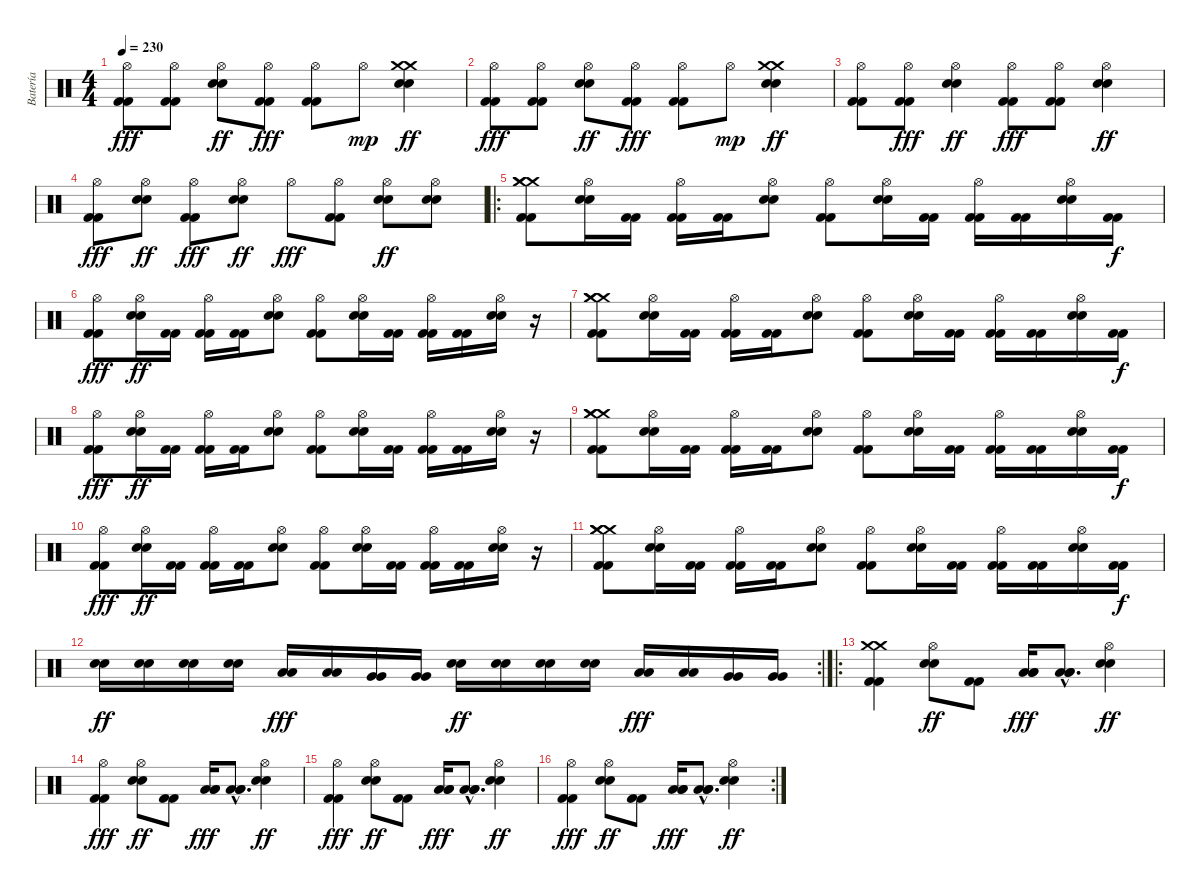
\track ("Batería" "Batería") {instrument percussion}
\staff {score}
\articulation defaults
\ts (4 4)
\tempo 230
\clef neutral
\ks c
("Hi-Hat (open)" "Kick (hit) 2" "Kick (hit) 2").8{dy fff} ("Hi-Hat (open)" "Kick (hit) 2" "Kick (hit) 2").8 ("Hi-Hat (open)" "Electric Snare (hit)" "Electric Snare (hit)").8{dy ff} ("Hi-Hat (open)" "Kick (hit) 2" "Kick (hit) 2").8{dy fff} ("Hi-Hat (open)" "Kick (hit) 2" "Kick (hit) 2").8 "Hi-Hat (open)".8{dy mp} ("Crash medium (hit)" "Crash medium (hit)" "Electric Snare (hit)" "Electric Snare (hit)").4{dy ff} |
("Hi-Hat (open)" "Kick (hit) 2" "Kick (hit) 2").8{dy fff} ("Hi-Hat (open)" "Kick (hit) 2" "Kick (hit) 2").8 ("Hi-Hat (open)" "Electric Snare (hit)" "Electric Snare (hit)").8{dy ff} ("Hi-Hat (open)" "Kick (hit) 2" "Kick (hit) 2").8{dy fff} ("Hi-Hat (open)" "Kick (hit) 2" "Kick (hit) 2").8 "Hi-Hat (open)".8{dy mp} ("Crash medium (hit)" "Crash medium (hit)" "Electric Snare (hit)" "Electric Snare (hit)").4{dy ff} |
("Hi-Hat (open)" "Kick (hit) 2" "Kick (hit) 2").8 ("Hi-Hat (open)" "Kick (hit) 2" "Kick (hit) 2").8{dy fff} ("Hi-Hat (open)" "Electric Snare (hit)" "Electric Snare (hit)").4{dy ff} ("Hi-Hat (open)" "Kick (hit) 2" "Kick (hit) 2").8{dy fff} ("Hi-Hat (open)" "Kick (hit) 2" "Kick (hit) 2").8 ("Hi-Hat (open)" "Electric Snare (hit)" "Electric Snare (hit)").4{dy ff} |
("Hi-Hat (open)" "Kick (hit) 2" "Kick (hit) 2").8{dy fff} ("Hi-Hat (open)" "Electric Snare (hit)" "Electric Snare (hit)").8{dy ff} ("Hi-Hat (open)" "Kick (hit) 2" "Kick (hit) 2").8{dy fff} ("Hi-Hat (open)" "Electric Snare (hit)" "Electric Snare (hit)").8{dy ff} "Hi-Hat (open)".8{dy fff} ("Hi-Hat (open)" "Kick (hit) 2" "Kick (hit) 2").8 ("Hi-Hat (open)" "Electric Snare (hit)" "Electric Snare (hit)").8{dy ff} ("Hi-Hat (open)" "Electric Snare (hit)" "Electric Snare (hit)").8 |
\ro
("Crash medium (hit)" "Crash medium (hit)" "Crash medium (hit)" "Kick (hit) 2" "Kick (hit) 2").8 ("Hi-Hat (open)" "Electric Snare (hit)" "Electric Snare (hit)").16 ("Kick (hit) 2" "Kick (hit) 2").16 ("Hi-Hat (open)" "Kick (hit) 2" "Kick (hit) 2").16 ("Kick (hit) 2" "Kick (hit) 2").16 ("Hi-Hat (open)" "Electric Snare (hit)" "Electric Snare (hit)").8 ("Hi-Hat (open)" "Kick (hit) 2" "Kick (hit) 2").8 ("Hi-Hat (open)" "Electric Snare (hit)" "Electric Snare (hit)").16 ("Kick (hit) 2" "Kick (hit) 2").16 ("Hi-Hat (open)" "Kick (hit) 2" "Kick (hit) 2").16 ("Kick (hit) 2" "Kick (hit) 2").16 ("Hi-Hat (open)" "Electric Snare (hit)" "Electric Snare (hit)").16 ("Kick (hit) 2" "Kick (hit) 2").16{dy f} |
("Hi-Hat (open)" "Kick (hit) 2" "Kick (hit) 2").8{dy fff} ("Hi-Hat (open)" "Electric Snare (hit)" "Electric Snare (hit)").16{dy ff} ("Kick (hit) 2" "Kick (hit) 2").16 ("Hi-Hat (open)" "Kick (hit) 2" "Kick (hit) 2").16 ("Kick (hit) 2" "Kick (hit) 2").16 ("Hi-Hat (open)" "Electric Snare (hit)" "Electric Snare (hit)").8 ("Hi-Hat (open)" "Kick (hit) 2" "Kick (hit) 2").8 ("Hi-Hat (open)" "Electric Snare (hit)" "Electric Snare (hit)").16 ("Kick (hit) 2" "Kick (hit) 2").16 ("Hi-Hat (open)" "Kick (hit) 2" "Kick (hit) 2").16 ("Kick (hit) 2" "Kick (hit) 2").16 ("Hi-Hat (open)" "Electric Snare (hit)" "Electric Snare (hit)").16 r.16 |
("Crash medium (hit)" "Crash medium (hit)" "Crash medium (hit)" "Kick (hit) 2" "Kick (hit) 2").8 ("Hi-Hat (open)" "Electric Snare (hit)" "Electric Snare (hit)").16 ("Kick (hit) 2" "Kick (hit) 2").16 ("Hi-Hat (open)" "Kick (hit) 2" "Kick (hit) 2").16 ("Kick (hit) 2" "Kick (hit) 2").16 ("Hi-Hat (open)" "Electric Snare (hit)" "Electric Snare (hit)").8 ("Hi-Hat (open)" "Kick (hit) 2" "Kick (hit) 2").8 ("Hi-Hat (open)" "Electric Snare (hit)" "Electric Snare (hit)").16 ("Kick (hit) 2" "Kick (hit) 2").16 ("Hi-Hat (open)" "Kick (hit) 2" "Kick (hit) 2").16 ("Kick (hit) 2" "Kick (hit) 2").16 ("Hi-Hat (open)" "Electric Snare (hit)" "Electric Snare (hit)").16 ("Kick (hit) 2" "Kick (hit) 2").16{dy f} |
("Hi-Hat (open)" "Kick (hit) 2" "Kick (hit) 2").8{dy fff} ("Hi-Hat (open)" "Electric Snare (hit)" "Electric Snare (hit)").16{dy ff} ("Kick (hit) 2" "Kick (hit) 2").16 ("Hi-Hat (open)" "Kick (hit) 2" "Kick (hit) 2").16 ("Kick (hit) 2" "Kick (hit) 2").16 ("Hi-Hat (open)" "Electric Snare (hit)" "Electric Snare (hit)").8 ("Hi-Hat (open)" "Kick (hit) 2" "Kick (hit) 2").8 ("Hi-Hat (open)" "Electric Snare (hit)" "Electric Snare (hit)").16 ("Kick (hit) 2" "Kick (hit) 2").16 ("Hi-Hat (open)" "Kick (hit) 2" "Kick (hit) 2").16 ("Kick (hit) 2" "Kick (hit) 2").16 ("Hi-Hat (open)" "Electric Snare (hit)" "Electric Snare (hit)").16 r.16 |
("Crash medium (hit)" "Crash medium (hit)" "Crash medium (hit)" "Kick (hit) 2" "Kick (hit) 2").8 ("Hi-Hat (open)" "Electric Snare (hit)" "Electric Snare (hit)").16 ("Kick (hit) 2" "Kick (hit) 2").16 ("Hi-Hat (open)" "Kick (hit) 2" "Kick (hit) 2").16 ("Kick (hit) 2" "Kick (hit) 2").16 ("Hi-Hat (open)" "Electric Snare (hit)" "Electric Snare (hit)").8 ("Hi-Hat (open)" "Kick (hit) 2" "Kick (hit) 2").8 ("Hi-Hat (open)" "Electric Snare (hit)" "Electric Snare (hit)").16 ("Kick (hit) 2" "Kick (hit) 2").16 ("Hi-Hat (open)" "Kick (hit) 2" "Kick (hit) 2").16 ("Kick (hit) 2" "Kick (hit) 2").16 ("Hi-Hat (open)" "Electric Snare (hit)" "Electric Snare (hit)").16 ("Kick (hit) 2" "Kick (hit) 2").16{dy f} |
("Hi-Hat (open)" "Kick (hit) 2" "Kick (hit) 2").8{dy fff} ("Hi-Hat (open)" "Electric Snare (hit)" "Electric Snare (hit)").16{dy ff} ("Kick (hit) 2" "Kick (hit) 2").16 ("Hi-Hat (open)" "Kick (hit) 2" "Kick (hit) 2").16 ("Kick (hit) 2" "Kick (hit) 2").16 ("Hi-Hat (open)" "Electric Snare (hit)" "Electric Snare (hit)").8 ("Hi-Hat (open)" "Kick (hit) 2" "Kick (hit) 2").8 ("Hi-Hat (open)" "Electric Snare (hit)" "Electric Snare (hit)").16 ("Kick (hit) 2" "Kick (hit) 2").16 ("Hi-Hat (open)" "Kick (hit) 2" "Kick (hit) 2").16 ("Kick (hit) 2" "Kick (hit) 2").16 ("Hi-Hat (open)" "Electric Snare (hit)" "Electric Snare (hit)").16 r.16 |
("Crash medium (hit)" "Crash medium (hit)" "Crash medium (hit)" "Kick (hit) 2" "Kick (hit) 2").8 ("Hi-Hat (open)" "Electric Snare (hit)" "Electric Snare (hit)").16 ("Kick (hit) 2" "Kick (hit) 2").16 ("Hi-Hat (open)" "Kick (hit) 2" "Kick (hit) 2").16 ("Kick (hit) 2" "Kick (hit) 2").16 ("Hi-Hat (open)" "Electric Snare (hit)" "Electric Snare (hit)").8 ("Hi-Hat (open)" "Kick (hit) 2" "Kick (hit) 2").8 ("Hi-Hat (open)" "Electric Snare (hit)" "Electric Snare (hit)").16 ("Kick (hit) 2" "Kick (hit) 2").16 ("Hi-Hat (open)" "Kick (hit) 2" "Kick (hit) 2").16 ("Kick (hit) 2" "Kick (hit) 2").16 ("Hi-Hat (open)" "Electric Snare (hit)" "Electric Snare (hit)").16 ("Kick (hit) 2" "Kick (hit) 2").16{dy f} |
\rc 2
("Electric Snare (hit)" "Electric Snare (hit)").16{dy ff} ("Electric Snare (hit)" "Electric Snare (hit)").16 ("Electric Snare (hit)" "Electric Snare (hit)").16 ("Electric Snare (hit)" "Electric Snare (hit)").16 ("Low Tom (hit)" "Low Tom (hit)").16{dy fff} ("Low Tom (hit)" "Low Tom (hit)").16 ("Very Low Tom (hit)" "Very Low Tom (hit)").16 ("Very Low Tom (hit)" "Very Low Tom (hit)").16 ("Electric Snare (hit)" "Electric Snare (hit)").16{dy ff} ("Electric Snare (hit)" "Electric Snare (hit)").16 ("Electric Snare (hit)" "Electric Snare (hit)").16 ("Electric Snare (hit)" "Electric Snare (hit)").16 ("Low Tom (hit)" "Low Tom (hit)").16{dy fff} ("Low Tom (hit)" "Low Tom (hit)").16 ("Very Low Tom (hit)" "Very Low Tom (hit)").16 ("Very Low Tom (hit)" "Very Low Tom (hit)").16 |
\ro
("Crash medium (hit)" "Crash medium (hit)" "Kick (hit) 2" "Kick (hit) 2").4 ("Hi-Hat (open)" "Electric Snare (hit)" "Electric Snare (hit)").8{dy ff} ("Kick (hit) 2" "Kick (hit) 2").8 ("Low Tom (hit)" "Low Floor Tom (hit)" "Low Floor Tom (hit)").16{dy fff} ("Low Tom (hit)"{hac} "Low Floor Tom (hit)"{hac} "Low Floor Tom (hit)"{hac}).8{d} ("Hi-Hat (open)" "Electric Snare (hit)" "Electric Snare (hit)").4{dy ff} |
("Hi-Hat (open)" "Kick (hit) 2" "Kick (hit) 2").4{dy fff} ("Hi-Hat (open)" "Electric Snare (hit)" "Electric Snare (hit)").8{dy ff} ("Kick (hit) 2" "Kick (hit) 2").8 ("Low Tom (hit)" "Low Floor Tom (hit)" "Low Floor Tom (hit)").16{dy fff} ("Low Tom (hit)"{hac} "Low Floor Tom (hit)"{hac} "Low Floor Tom (hit)"{hac}).8{d} ("Hi-Hat (open)" "Electric Snare (hit)" "Electric Snare (hit)").4{dy ff} |
("Hi-Hat (open)" "Kick (hit) 2" "Kick (hit) 2").4{dy fff} ("Hi-Hat (open)" "Electric Snare (hit)" "Electric Snare (hit)").8{dy ff} ("Kick (hit) 2" "Kick (hit) 2").8 ("Low Tom (hit)" "Low Floor Tom (hit)" "Low Floor Tom (hit)").16{dy fff} ("Low Tom (hit)"{hac} "Low Floor Tom (hit)"{hac} "Low Floor Tom (hit)"{hac}).8{d} ("Hi-Hat (open)" "Electric Snare (hit)" "Electric Snare (hit)").4{dy ff} |
\rc 2
("Hi-Hat (open)" "Kick (hit) 2" "Kick (hit) 2").4{dy fff} ("Hi-Hat (open)" "Electric Snare (hit)" "Electric Snare (hit)").8{dy ff} ("Kick (hit) 2" "Kick (hit) 2").8 ("Low Tom (hit)" "Low Floor Tom (hit)" "Low Floor Tom (hit)").16{dy fff} ("Low Tom (hit)"{hac} "Low Floor Tom (hit)"{hac} "Low Floor Tom (hit)"{hac}).8{d} ("Hi-Hat (open)" "Electric Snare (hit)" "Electric Snare (hit)").4{dy ff}
